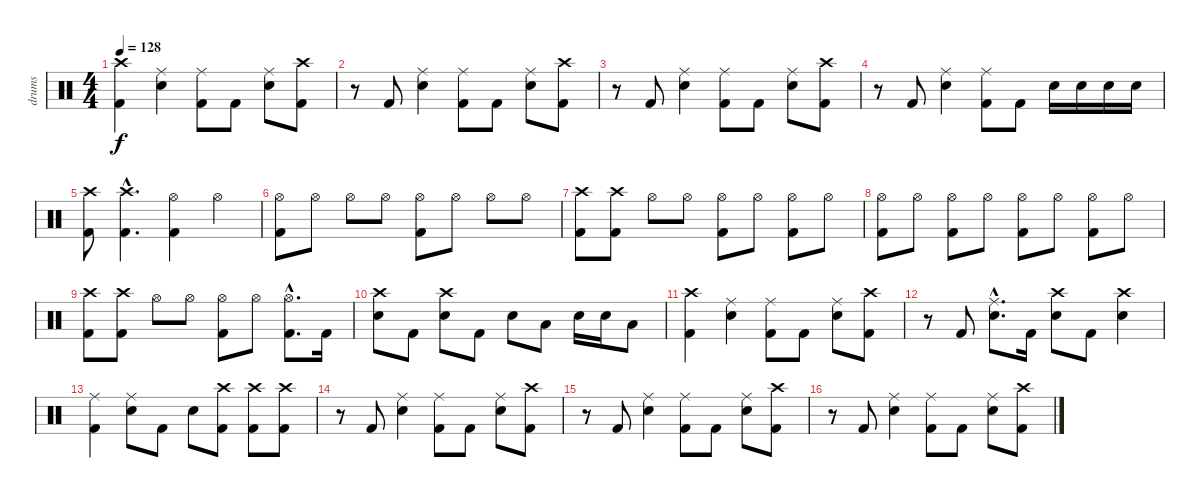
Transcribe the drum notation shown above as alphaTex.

\track ("drums" "drums") {instrument percussion}
\staff {score}
\articulation defaults
\ts (4 4)
\tempo 128
\clef neutral
\ks c
("Crash high (hit)" "Kick (hit) 2").4{dy f} ("Ride (middle)" "Electric Snare (hit)").4 ("Ride (middle)" "Kick (hit) 2").8 "Kick (hit) 2".8 ("Ride (middle)" "Electric Snare (hit)").8 ("Crash high (hit)" "Kick (hit) 2").8 |
r.8 "Kick (hit) 2".8 ("Ride (middle)" "Electric Snare (hit)").4 ("Ride (middle)" "Kick (hit) 2").8 "Kick (hit) 2".8 ("Ride (middle)" "Electric Snare (hit)").8 ("Crash high (hit)" "Kick (hit) 2").8 |
r.8 "Kick (hit) 2".8 ("Ride (middle)" "Electric Snare (hit)").4 ("Ride (middle)" "Kick (hit) 2").8 "Kick (hit) 2".8 ("Ride (middle)" "Electric Snare (hit)").8 ("Crash high (hit)" "Kick (hit) 2").8 |
r.8 "Kick (hit) 2".8 ("Ride (middle)" "Electric Snare (hit)").4 ("Ride (middle)" "Kick (hit) 2").8 "Kick (hit) 2".8 "Electric Snare (hit)".16 "Electric Snare (hit)".16 "Electric Snare (hit)".16 "Electric Snare (hit)".16 |
("Crash high (hit)" "Kick (hit) 2").8 ("Crash high (hit)"{hac} "Kick (hit) 2"{hac}).4{d} ("Hi-Hat (open)" "Kick (hit) 2").4 "Hi-Hat (open)".4 |
("Hi-Hat (open)" "Kick (hit) 2").8 "Hi-Hat (open)".8 "Hi-Hat (open)".8 "Hi-Hat (open)".8 ("Hi-Hat (open)" "Kick (hit) 2").8 "Hi-Hat (open)".8 "Hi-Hat (open)".8 "Hi-Hat (open)".8 |
("Crash high (hit)" "Kick (hit) 2").8 ("Crash high (hit)" "Kick (hit) 2").8 "Hi-Hat (open)".8 "Hi-Hat (open)".8 ("Hi-Hat (open)" "Kick (hit) 2").8 "Hi-Hat (open)".8 ("Hi-Hat (open)" "Kick (hit) 2").8 "Hi-Hat (open)".8 |
("Hi-Hat (open)" "Kick (hit) 2").8 "Hi-Hat (open)".8 ("Hi-Hat (open)" "Kick (hit) 2").8 "Hi-Hat (open)".8 ("Hi-Hat (open)" "Kick (hit) 2").8 "Hi-Hat (open)".8 ("Hi-Hat (open)" "Kick (hit) 2").8 "Hi-Hat (open)".8 |
("Crash high (hit)" "Kick (hit) 2").8 ("Crash high (hit)" "Kick (hit) 2").8 "Hi-Hat (open)".8 "Hi-Hat (open)".8 ("Hi-Hat (open)" "Kick (hit) 2").8 "Hi-Hat (open)".8 ("Hi-Hat (open)"{hac} "Kick (hit) 2"{hac}).8{d} "Kick (hit) 2".16 |
("Crash high (hit)" "Electric Snare (hit)").8 "Kick (hit) 2".8 ("Crash high (hit)" "Electric Snare (hit)").8 "Kick (hit) 2".8 "Electric Snare (hit)".8 "Low Tom (hit)".8 "Electric Snare (hit)".16 "Electric Snare (hit)".16 "Low Tom (hit)".8 |
("Crash high (hit)" "Kick (hit) 2").4 ("Ride (middle)" "Electric Snare (hit)").4 ("Ride (middle)" "Kick (hit) 2").8 "Kick (hit) 2".8 ("Ride (middle)" "Electric Snare (hit)").8 ("Crash high (hit)" "Kick (hit) 2").8 |
r.8 "Kick (hit) 2".8 ("Ride (middle)"{hac} "Electric Snare (hit)"{hac}).8{d} "Kick (hit) 2".16 ("Crash high (hit)" "Electric Snare (hit)").8 "Kick (hit) 2".8 ("Crash high (hit)" "Electric Snare (hit)").4 |
("Ride (middle)" "Kick (hit) 2").4 ("Ride (middle)" "Electric Snare (hit)").8 "Kick (hit) 2".8 "Electric Snare (hit)".8 ("Crash high (hit)" "Kick (hit) 2").8 ("Crash high (hit)" "Kick (hit) 2").8 ("Crash high (hit)" "Kick (hit) 2").8 |
r.8 "Kick (hit) 2".8 ("Ride (middle)" "Electric Snare (hit)").4 ("Ride (middle)" "Kick (hit) 2").8 "Kick (hit) 2".8 ("Ride (middle)" "Electric Snare (hit)").8 ("Crash high (hit)" "Kick (hit) 2").8 |
r.8 "Kick (hit) 2".8 ("Ride (middle)" "Electric Snare (hit)").4 ("Ride (middle)" "Kick (hit) 2").8 "Kick (hit) 2".8 ("Ride (middle)" "Electric Snare (hit)").8 ("Crash high (hit)" "Kick (hit) 2").8 |
r.8 "Kick (hit) 2".8 ("Ride (middle)" "Electric Snare (hit)").4 ("Ride (middle)" "Kick (hit) 2").8 "Kick (hit) 2".8 ("Ride (middle)" "Electric Snare (hit)").8 ("Crash high (hit)" "Kick (hit) 2").8
